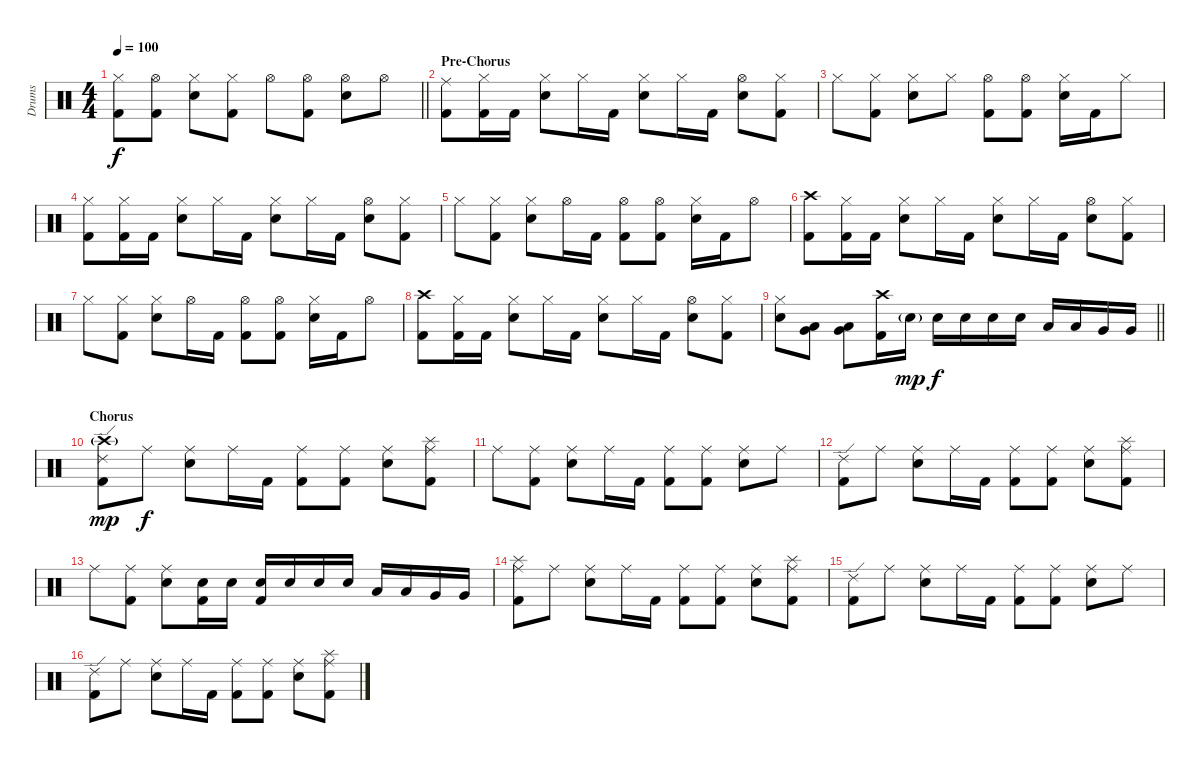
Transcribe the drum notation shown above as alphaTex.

\track ("Drums" "Drums") {instrument percussion}
\staff {score}
\articulation defaults
\ts (4 4)
\tempo 100
\clef neutral
\barLineRight lightlight
\ks c
("Kick (hit) 2" "Hi-Hat (closed)").8{dy f} ("Kick (hit) 2" "Hi-Hat (open)").8 ("Snare (hit) 2" "Hi-Hat (closed)").8 ("Kick (hit) 2" "Hi-Hat (closed)").8 "Hi-Hat (open)".8 ("Kick (hit) 2" "Hi-Hat (open)").8 ("Snare (hit) 2" "Hi-Hat (open)").8 "Hi-Hat (open)".8 |
\section ("" "Pre-Chorus")
("Kick (hit) 2" "Ride (middle)").8 ("Kick (hit) 2" "Hi-Hat (closed)").16 "Kick (hit) 2".16 ("Snare (hit) 2" "Hi-Hat (closed)").8 "Hi-Hat (closed)".16 "Kick (hit) 2".16 ("Snare (hit) 2" "Hi-Hat (closed)").8 "Hi-Hat (closed)".16 "Kick (hit) 2".16 ("Snare (hit) 2" "Hi-Hat (open)").8 ("Hi-Hat (closed)" "Kick (hit) 2").8 |
"Hi-Hat (closed)".8 ("Kick (hit) 2" "Hi-Hat (closed)").8 ("Snare (hit) 2" "Hi-Hat (closed)").8 "Hi-Hat (closed)".8 ("Hi-Hat (open)" "Kick (hit) 2").8 ("Hi-Hat (open)" "Kick (hit) 2").8 ("Snare (hit) 2" "Hi-Hat (closed)").16 "Kick (hit) 2".16 "Hi-Hat (closed)".8 |
("Kick (hit) 2" "Hi-Hat (closed)").8 ("Kick (hit) 2" "Hi-Hat (closed)").16 "Kick (hit) 2".16 ("Snare (hit) 2" "Hi-Hat (closed)").8 "Hi-Hat (closed)".16 "Kick (hit) 2".16 ("Snare (hit) 2" "Hi-Hat (closed)").8 "Hi-Hat (closed)".16 "Kick (hit) 2".16 ("Snare (hit) 2" "Hi-Hat (open)").8 ("Hi-Hat (closed)" "Kick (hit) 2").8 |
"Hi-Hat (closed)".8 ("Kick (hit) 2" "Hi-Hat (closed)").8 ("Snare (hit) 2" "Hi-Hat (closed)").8 "Hi-Hat (open)".16 "Kick (hit) 2".16 ("Hi-Hat (open)" "Kick (hit) 2").8 ("Hi-Hat (open)" "Kick (hit) 2").8 ("Snare (hit) 2" "Hi-Hat (closed)").16 "Kick (hit) 2".16 "Hi-Hat (open)".8 |
("Kick (hit) 2" "Crash high (hit)").8 ("Kick (hit) 2" "Hi-Hat (closed)").16 "Kick (hit) 2".16 ("Snare (hit) 2" "Hi-Hat (closed)").8 "Hi-Hat (closed)".16 "Kick (hit) 2".16 ("Snare (hit) 2" "Hi-Hat (closed)").8 "Hi-Hat (closed)".16 "Kick (hit) 2".16 ("Snare (hit) 2" "Hi-Hat (open)").8 ("Hi-Hat (closed)" "Kick (hit) 2").8 |
"Hi-Hat (closed)".8 ("Kick (hit) 2" "Hi-Hat (closed)").8 ("Snare (hit) 2" "Hi-Hat (closed)").8 "Hi-Hat (open)".16 "Kick (hit) 2".16 ("Hi-Hat (open)" "Kick (hit) 2").8 ("Hi-Hat (open)" "Kick (hit) 2").8 ("Snare (hit) 2" "Hi-Hat (closed)").16 "Kick (hit) 2".16 "Hi-Hat (open)".8 |
("Kick (hit) 2" "Crash high (hit)").8 ("Kick (hit) 2" "Hi-Hat (closed)").16 "Kick (hit) 2".16 ("Snare (hit) 2" "Hi-Hat (closed)").8 "Hi-Hat (closed)".16 "Kick (hit) 2".16 ("Snare (hit) 2" "Hi-Hat (closed)").8 "Hi-Hat (closed)".16 "Kick (hit) 2".16 ("Snare (hit) 2" "Hi-Hat (open)").8 ("Hi-Hat (closed)" "Kick (hit) 2").8 |
\barLineRight lightlight
("Hi-Hat (closed)" "Snare (hit) 2").8 ("Very Low Tom (hit)" "Low Floor Tom (hit)").8 ("Very Low Tom (hit)" "Low Floor Tom (hit)").8 ("Kick (hit) 2" "Crash high (hit)").16 "Snare (hit) 2"{g}.16{dy mp} "Snare (hit) 2".16{dy f} "Snare (hit) 2".16 "Snare (hit) 2".16 "Snare (hit) 2".16 "Low Tom (hit)".16 "Low Tom (hit)".16 "Very Low Tom (hit)".16 "Very Low Tom (hit)".16 |
\section ("" "Chorus")
("Ride (edge) 2" "Kick (hit) 2" "Crash high (hit)"{g}).8{dy mp} "Ride (middle)".8{dy f} ("Ride (middle)" "Snare (hit) 2").8 "Ride (middle)".16 "Kick (hit) 2".16 ("Ride (middle)" "Kick (hit) 2").8 ("Ride (middle)" "Kick (hit) 2").8 ("Ride (middle)" "Snare (hit) 2").8 ("Ride (middle)" "Kick (hit) 2" "Splash (hit)").8 |
"Ride (middle)".8 ("Ride (middle)" "Kick (hit) 2").8 ("Ride (middle)" "Snare (hit) 2").8 "Ride (middle)".16 "Kick (hit) 2".16 ("Ride (middle)" "Kick (hit) 2").8 ("Ride (middle)" "Kick (hit) 2").8 ("Ride (middle)" "Snare (hit) 2").8 "Ride (middle)".8 |
("Ride (edge) 2" "Kick (hit) 2").8 "Ride (middle)".8 ("Ride (middle)" "Snare (hit) 2").8 "Ride (middle)".16 "Kick (hit) 2".16 ("Ride (middle)" "Kick (hit) 2").8 ("Ride (middle)" "Kick (hit) 2").8 ("Ride (middle)" "Snare (hit) 2").8 ("Ride (middle)" "Kick (hit) 2" "Splash (hit)").8 |
"Ride (middle)".8 ("Ride (middle)" "Kick (hit) 2").8 ("Ride (middle)" "Snare (hit) 2").8 ("Snare (hit) 2" "Kick (hit) 2").16 "Snare (hit) 2".16 ("Snare (hit) 2" "Kick (hit) 2").16 "Snare (hit) 2".16 "Snare (hit) 2".16 "Snare (hit) 2".16 "Low Tom (hit)".16 "Low Tom (hit)".16 "Very Low Tom (hit)".16 "Very Low Tom (hit)".16 |
("Splash (hit)" "Kick (hit) 2" "Ride (middle)").8 "Ride (middle)".8 ("Ride (middle)" "Snare (hit) 2").8 "Ride (middle)".16 "Kick (hit) 2".16 ("Ride (middle)" "Kick (hit) 2").8 ("Ride (middle)" "Kick (hit) 2").8 ("Ride (middle)" "Snare (hit) 2").8 ("Ride (middle)" "Kick (hit) 2" "Splash (hit)").8 |
("Ride (edge) 2" "Kick (hit) 2").8 "Ride (middle)".8 ("Ride (middle)" "Snare (hit) 2").8 "Ride (middle)".16 "Kick (hit) 2".16 ("Ride (middle)" "Kick (hit) 2").8 ("Ride (middle)" "Kick (hit) 2").8 ("Ride (middle)" "Snare (hit) 2").8 "Ride (middle)".8 |
("Ride (edge) 2" "Kick (hit) 2").8 "Ride (middle)".8 ("Ride (middle)" "Snare (hit) 2").8 "Ride (middle)".16 "Kick (hit) 2".16 ("Ride (middle)" "Kick (hit) 2").8 ("Ride (middle)" "Kick (hit) 2").8 ("Ride (middle)" "Snare (hit) 2").8 ("Ride (middle)" "Kick (hit) 2" "Splash (hit)").8
